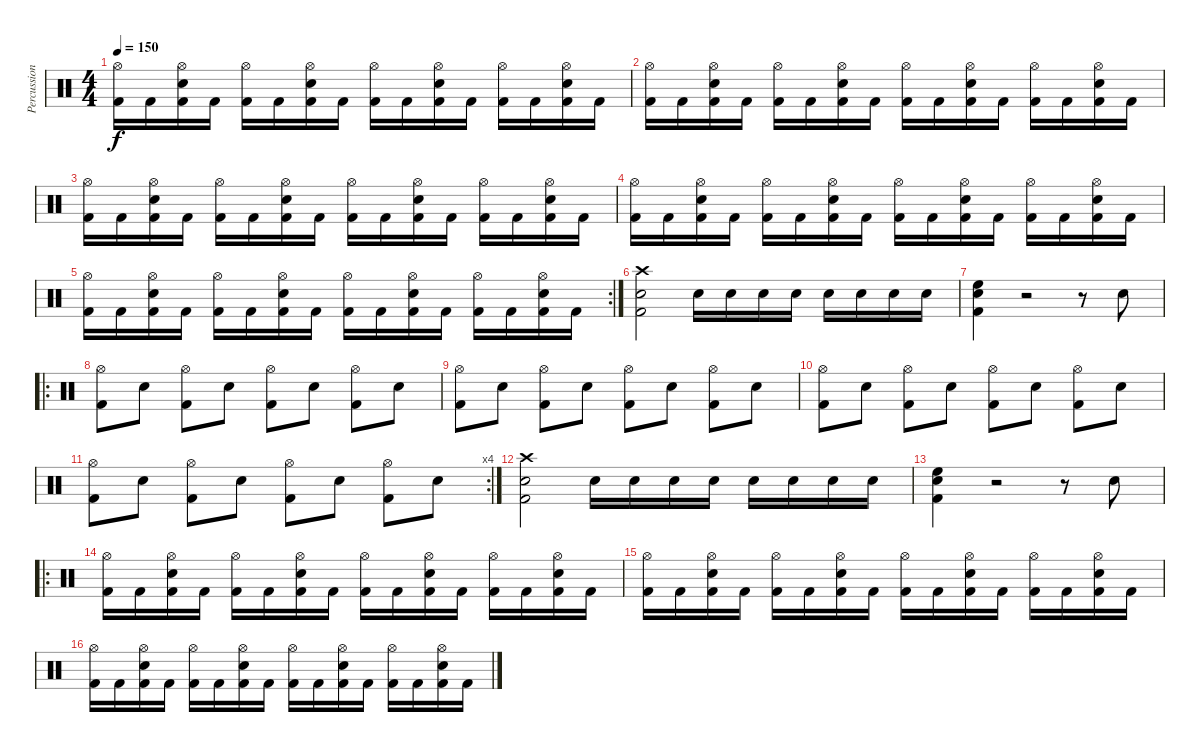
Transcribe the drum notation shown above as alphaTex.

\track ("Percussion" "Percussion") {instrument percussion}
\staff {score}
\articulation defaults
\ts (4 4)
\tempo 150
\clef neutral
\ks c
("Hi-Hat (open)" "Kick (hit) 2").16{dy f} "Kick (hit) 2".16 ("Hi-Hat (open)" "Snare (hit) 2" "Kick (hit) 2").16 "Kick (hit) 2".16 ("Hi-Hat (open)" "Kick (hit) 2").16 "Kick (hit) 2".16 ("Hi-Hat (open)" "Snare (hit) 2" "Kick (hit) 2").16 "Kick (hit) 2".16 ("Hi-Hat (open)" "Kick (hit) 2").16 "Kick (hit) 2".16 ("Hi-Hat (open)" "Snare (hit) 2" "Kick (hit) 2").16 "Kick (hit) 2".16 ("Hi-Hat (open)" "Kick (hit) 2").16 "Kick (hit) 2".16 ("Hi-Hat (open)" "Snare (hit) 2" "Kick (hit) 2").16 "Kick (hit) 2".16 |
("Hi-Hat (open)" "Kick (hit) 2").16 "Kick (hit) 2".16 ("Hi-Hat (open)" "Snare (hit) 2" "Kick (hit) 2").16 "Kick (hit) 2".16 ("Hi-Hat (open)" "Kick (hit) 2").16 "Kick (hit) 2".16 ("Hi-Hat (open)" "Snare (hit) 2" "Kick (hit) 2").16 "Kick (hit) 2".16 ("Hi-Hat (open)" "Kick (hit) 2").16 "Kick (hit) 2".16 ("Hi-Hat (open)" "Snare (hit) 2" "Kick (hit) 2").16 "Kick (hit) 2".16 ("Hi-Hat (open)" "Kick (hit) 2").16 "Kick (hit) 2".16 ("Hi-Hat (open)" "Snare (hit) 2" "Kick (hit) 2").16 "Kick (hit) 2".16 |
("Hi-Hat (open)" "Kick (hit) 2").16 "Kick (hit) 2".16 ("Hi-Hat (open)" "Snare (hit) 2" "Kick (hit) 2").16 "Kick (hit) 2".16 ("Hi-Hat (open)" "Kick (hit) 2").16 "Kick (hit) 2".16 ("Hi-Hat (open)" "Snare (hit) 2" "Kick (hit) 2").16 "Kick (hit) 2".16 ("Hi-Hat (open)" "Kick (hit) 2").16 "Kick (hit) 2".16 ("Hi-Hat (open)" "Snare (hit) 2" "Kick (hit) 2").16 "Kick (hit) 2".16 ("Hi-Hat (open)" "Kick (hit) 2").16 "Kick (hit) 2".16 ("Hi-Hat (open)" "Snare (hit) 2" "Kick (hit) 2").16 "Kick (hit) 2".16 |
("Hi-Hat (open)" "Kick (hit) 2").16 "Kick (hit) 2".16 ("Hi-Hat (open)" "Snare (hit) 2" "Kick (hit) 2").16 "Kick (hit) 2".16 ("Hi-Hat (open)" "Kick (hit) 2").16 "Kick (hit) 2".16 ("Hi-Hat (open)" "Snare (hit) 2" "Kick (hit) 2").16 "Kick (hit) 2".16 ("Hi-Hat (open)" "Kick (hit) 2").16 "Kick (hit) 2".16 ("Hi-Hat (open)" "Snare (hit) 2" "Kick (hit) 2").16 "Kick (hit) 2".16 ("Hi-Hat (open)" "Kick (hit) 2").16 "Kick (hit) 2".16 ("Hi-Hat (open)" "Snare (hit) 2" "Kick (hit) 2").16 "Kick (hit) 2".16 |
\rc 2
("Hi-Hat (open)" "Kick (hit) 2").16 "Kick (hit) 2".16 ("Hi-Hat (open)" "Snare (hit) 2" "Kick (hit) 2").16 "Kick (hit) 2".16 ("Hi-Hat (open)" "Kick (hit) 2").16 "Kick (hit) 2".16 ("Hi-Hat (open)" "Snare (hit) 2" "Kick (hit) 2").16 "Kick (hit) 2".16 ("Hi-Hat (open)" "Kick (hit) 2").16 "Kick (hit) 2".16 ("Hi-Hat (open)" "Snare (hit) 2" "Kick (hit) 2").16 "Kick (hit) 2".16 ("Hi-Hat (open)" "Kick (hit) 2").16 "Kick (hit) 2".16 ("Hi-Hat (open)" "Snare (hit) 2" "Kick (hit) 2").16 "Kick (hit) 2".16 |
("Crash high (hit)" "Snare (hit) 2" "Kick (hit) 2").2 "Snare (hit) 2".16 "Snare (hit) 2".16 "Snare (hit) 2".16 "Snare (hit) 2".16 "Snare (hit) 2".16 "Snare (hit) 2".16 "Snare (hit) 2".16 "Snare (hit) 2".16 |
("High Floor Tom (hit)" "Snare (hit) 2" "Kick (hit) 2").4 r.2 r.8 "Snare (hit) 2".8 |
\ro
("Hi-Hat (open)" "Kick (hit) 2").8 "Snare (hit) 2".8 ("Hi-Hat (open)" "Kick (hit) 2").8 "Snare (hit) 2".8 ("Hi-Hat (open)" "Kick (hit) 2").8 "Snare (hit) 2".8 ("Hi-Hat (open)" "Kick (hit) 2").8 "Snare (hit) 2".8 |
("Hi-Hat (open)" "Kick (hit) 2").8 "Snare (hit) 2".8 ("Hi-Hat (open)" "Kick (hit) 2").8 "Snare (hit) 2".8 ("Hi-Hat (open)" "Kick (hit) 2").8 "Snare (hit) 2".8 ("Hi-Hat (open)" "Kick (hit) 2").8 "Snare (hit) 2".8 |
("Hi-Hat (open)" "Kick (hit) 2").8 "Snare (hit) 2".8 ("Hi-Hat (open)" "Kick (hit) 2").8 "Snare (hit) 2".8 ("Hi-Hat (open)" "Kick (hit) 2").8 "Snare (hit) 2".8 ("Hi-Hat (open)" "Kick (hit) 2").8 "Snare (hit) 2".8 |
\rc 4
("Hi-Hat (open)" "Kick (hit) 2").8 "Snare (hit) 2".8 ("Hi-Hat (open)" "Kick (hit) 2").8 "Snare (hit) 2".8 ("Hi-Hat (open)" "Kick (hit) 2").8 "Snare (hit) 2".8 ("Hi-Hat (open)" "Kick (hit) 2").8 "Snare (hit) 2".8 |
("Crash high (hit)" "Snare (hit) 2" "Kick (hit) 2").2 "Snare (hit) 2".16 "Snare (hit) 2".16 "Snare (hit) 2".16 "Snare (hit) 2".16 "Snare (hit) 2".16 "Snare (hit) 2".16 "Snare (hit) 2".16 "Snare (hit) 2".16 |
("High Floor Tom (hit)" "Snare (hit) 2" "Kick (hit) 2").4 r.2 r.8 "Snare (hit) 2".8 |
\ro
("Hi-Hat (open)" "Kick (hit) 2").16 "Kick (hit) 2".16 ("Hi-Hat (open)" "Snare (hit) 2" "Kick (hit) 2").16 "Kick (hit) 2".16 ("Hi-Hat (open)" "Kick (hit) 2").16 "Kick (hit) 2".16 ("Hi-Hat (open)" "Snare (hit) 2" "Kick (hit) 2").16 "Kick (hit) 2".16 ("Hi-Hat (open)" "Kick (hit) 2").16 "Kick (hit) 2".16 ("Hi-Hat (open)" "Snare (hit) 2" "Kick (hit) 2").16 "Kick (hit) 2".16 ("Hi-Hat (open)" "Kick (hit) 2").16 "Kick (hit) 2".16 ("Hi-Hat (open)" "Snare (hit) 2" "Kick (hit) 2").16 "Kick (hit) 2".16 |
("Hi-Hat (open)" "Kick (hit) 2").16 "Kick (hit) 2".16 ("Hi-Hat (open)" "Snare (hit) 2" "Kick (hit) 2").16 "Kick (hit) 2".16 ("Hi-Hat (open)" "Kick (hit) 2").16 "Kick (hit) 2".16 ("Hi-Hat (open)" "Snare (hit) 2" "Kick (hit) 2").16 "Kick (hit) 2".16 ("Hi-Hat (open)" "Kick (hit) 2").16 "Kick (hit) 2".16 ("Hi-Hat (open)" "Snare (hit) 2" "Kick (hit) 2").16 "Kick (hit) 2".16 ("Hi-Hat (open)" "Kick (hit) 2").16 "Kick (hit) 2".16 ("Hi-Hat (open)" "Snare (hit) 2" "Kick (hit) 2").16 "Kick (hit) 2".16 |
("Hi-Hat (open)" "Kick (hit) 2").16 "Kick (hit) 2".16 ("Hi-Hat (open)" "Snare (hit) 2" "Kick (hit) 2").16 "Kick (hit) 2".16 ("Hi-Hat (open)" "Kick (hit) 2").16 "Kick (hit) 2".16 ("Hi-Hat (open)" "Snare (hit) 2" "Kick (hit) 2").16 "Kick (hit) 2".16 ("Hi-Hat (open)" "Kick (hit) 2").16 "Kick (hit) 2".16 ("Hi-Hat (open)" "Snare (hit) 2" "Kick (hit) 2").16 "Kick (hit) 2".16 ("Hi-Hat (open)" "Kick (hit) 2").16 "Kick (hit) 2".16 ("Hi-Hat (open)" "Snare (hit) 2" "Kick (hit) 2").16 "Kick (hit) 2".16
